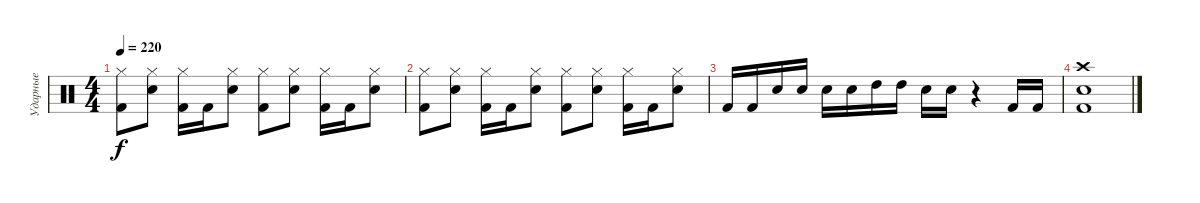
\track ("Ударные" "Ударные") {instrument percussion}
\staff {score}
\articulation defaults
\ts (4 4)
\tempo 220
\clef neutral
\ks c
("Kick (hit) 2" "Hi-Hat (closed)").8{dy f} ("Snare (hit) 2" "Hi-Hat (closed)").8 ("Kick (hit) 2" "Hi-Hat (closed)").16 "Kick (hit) 2".16 ("Snare (hit) 2" "Hi-Hat (closed)").8 ("Kick (hit) 2" "Hi-Hat (closed)").8 ("Snare (hit) 2" "Hi-Hat (closed)").8 ("Kick (hit) 2" "Hi-Hat (closed)").16 "Kick (hit) 2".16 ("Snare (hit) 2" "Hi-Hat (closed)").8 |
("Kick (hit) 2" "Hi-Hat (closed)").8 ("Snare (hit) 2" "Hi-Hat (closed)").8 ("Kick (hit) 2" "Hi-Hat (closed)").16 "Kick (hit) 2".16 ("Snare (hit) 2" "Hi-Hat (closed)").8 ("Kick (hit) 2" "Hi-Hat (closed)").8 ("Snare (hit) 2" "Hi-Hat (closed)").8 ("Kick (hit) 2" "Hi-Hat (closed)").16 "Kick (hit) 2".16 ("Snare (hit) 2" "Hi-Hat (closed)").8 |
"Kick (hit) 2".16 "Kick (hit) 2".16 "Snare (hit) 2".16 "Snare (hit) 2".16 "Snare (hit) 2".16 "Snare (hit) 2".16 "High Tom (hit)".16 "High Tom (hit)".16 "Snare (hit) 2".16 "Snare (hit) 2".16 r.4 "Kick (hit) 2".16 "Kick (hit) 2".16 |
("Kick (hit) 2" "Snare (hit) 2" "Crash high (hit)").1
